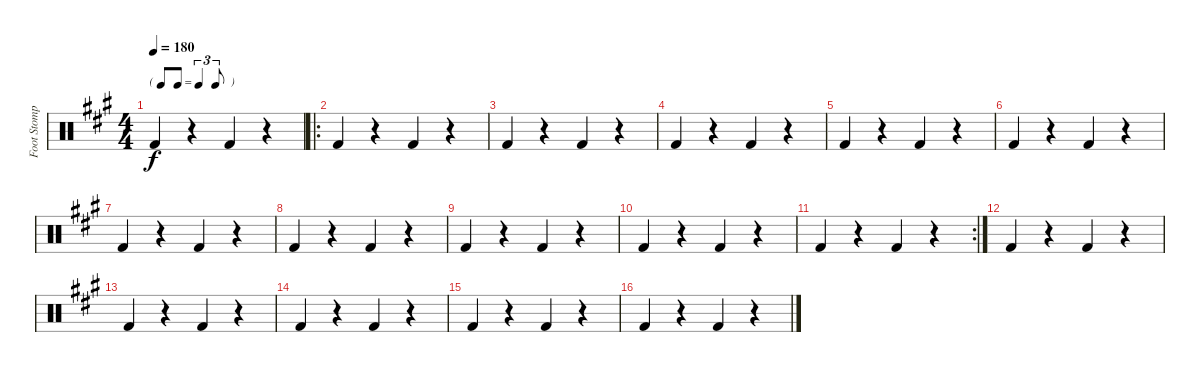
\track ("Foot Stomp" "Foot Stomp") {instrument percussion}
\staff {score}
\articulation defaults
\ts (4 4)
\tf triplet8th
\tempo 180
\clef neutral
\ks a "Kick (hit) 2".4{dy f}
r.4 "Kick (hit) 2".4 r.4 |
\ro "Kick (hit) 2".4
r.4 "Kick (hit) 2".4 r.4 |
"Kick (hit) 2".4 r.4 "Kick (hit) 2".4 r.4 |
"Kick (hit) 2".4 r.4 "Kick (hit) 2".4 r.4 |
"Kick (hit) 2".4 r.4 "Kick (hit) 2".4 r.4 |
"Kick (hit) 2".4 r.4 "Kick (hit) 2".4 r.4 |
"Kick (hit) 2".4 r.4 "Kick (hit) 2".4 r.4 |
"Kick (hit) 2".4 r.4 "Kick (hit) 2".4 r.4 |
"Kick (hit) 2".4 r.4 "Kick (hit) 2".4 r.4 |
"Kick (hit) 2".4 r.4 "Kick (hit) 2".4 r.4 |
\rc 2 "Kick (hit) 2".4
r.4 "Kick (hit) 2".4 r.4 |
"Kick (hit) 2".4 r.4 "Kick (hit) 2".4 r.4 |
"Kick (hit) 2".4 r.4 "Kick (hit) 2".4 r.4 |
"Kick (hit) 2".4 r.4 "Kick (hit) 2".4 r.4 |
"Kick (hit) 2".4 r.4 "Kick (hit) 2".4 r.4 |
"Kick (hit) 2".4 r.4 "Kick (hit) 2".4 r.4
